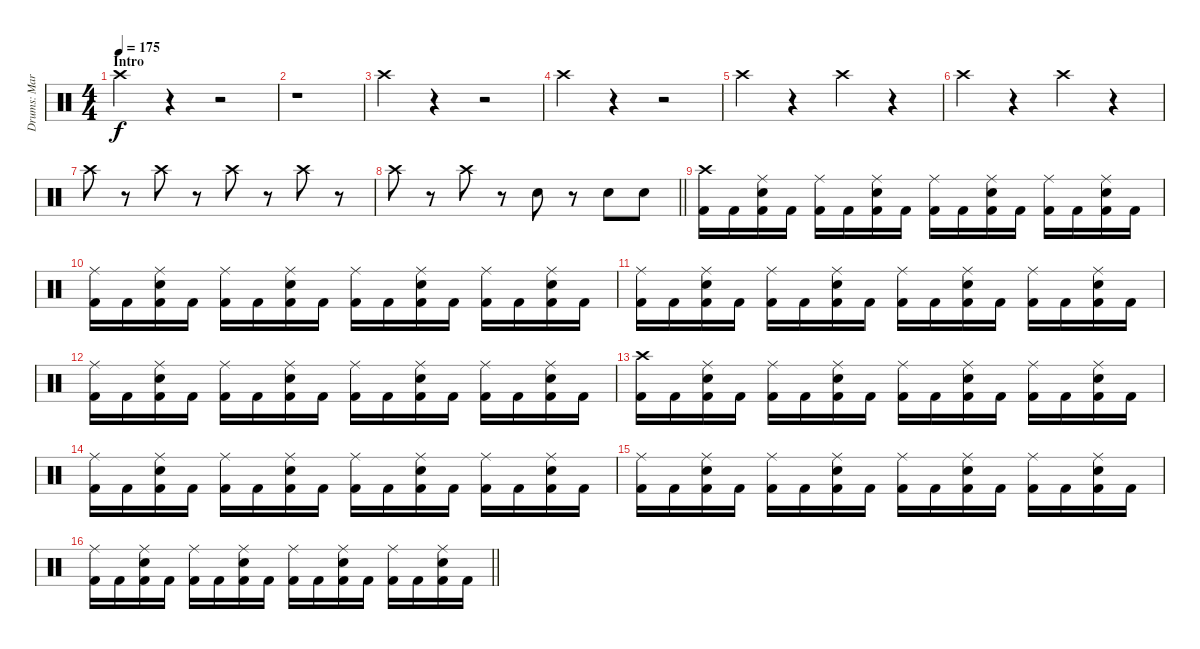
\track ("Drums: Martin Herzinger" "Drums: Mar") {instrument percussion}
\staff {score}
\articulation defaults
\ts (4 4)
\section ("" "Intro")
\tempo 175
\clef neutral
\ks aminor "Crash high (hit)".4{dy f}
r.4 r.2 |
r.1 |
"Crash high (hit)".4 r.4 r.2 |
"Crash high (hit)".4 r.4 r.2 |
"Crash high (hit)".4 r.4 "Crash high (hit)".4 r.4 |
"Crash high (hit)".4 r.4 "Crash high (hit)".4 r.4 |
"Crash high (hit)".8 r.8 "Crash high (hit)".8 r.8 "Crash high (hit)".8 r.8 "Crash high (hit)".8 r.8 |
\barLineRight lightlight "Crash high (hit)".8
r.8 "Crash high (hit)".8 r.8 "Snare (hit) 2".8 r.8 "Snare (hit) 2".8 "Snare (hit) 2".8 |
("Crash high (hit)" "Kick (hit) 2").16 "Kick (hit) 2".16 ("Ride (middle)" "Snare (hit) 2" "Kick (hit) 2").16 "Kick (hit) 2".16 ("Ride (middle)" "Kick (hit) 2").16 "Kick (hit) 2".16 ("Ride (middle)" "Snare (hit) 2" "Kick (hit) 2").16 "Kick (hit) 2".16 ("Ride (middle)" "Kick (hit) 2").16 "Kick (hit) 2".16 ("Ride (middle)" "Snare (hit) 2" "Kick (hit) 2").16 "Kick (hit) 2".16 ("Ride (middle)" "Kick (hit) 2").16 "Kick (hit) 2".16 ("Ride (middle)" "Snare (hit) 2" "Kick (hit) 2").16 "Kick (hit) 2".16 |
("Ride (middle)" "Kick (hit) 2").16 "Kick (hit) 2".16 ("Ride (middle)" "Snare (hit) 2" "Kick (hit) 2").16 "Kick (hit) 2".16 ("Ride (middle)" "Kick (hit) 2").16 "Kick (hit) 2".16 ("Ride (middle)" "Snare (hit) 2" "Kick (hit) 2").16 "Kick (hit) 2".16 ("Ride (middle)" "Kick (hit) 2").16 "Kick (hit) 2".16 ("Ride (middle)" "Snare (hit) 2" "Kick (hit) 2").16 "Kick (hit) 2".16 ("Ride (middle)" "Kick (hit) 2").16 "Kick (hit) 2".16 ("Ride (middle)" "Snare (hit) 2" "Kick (hit) 2").16 "Kick (hit) 2".16 |
("Ride (middle)" "Kick (hit) 2").16 "Kick (hit) 2".16 ("Ride (middle)" "Snare (hit) 2" "Kick (hit) 2").16 "Kick (hit) 2".16 ("Ride (middle)" "Kick (hit) 2").16 "Kick (hit) 2".16 ("Ride (middle)" "Snare (hit) 2" "Kick (hit) 2").16 "Kick (hit) 2".16 ("Ride (middle)" "Kick (hit) 2").16 "Kick (hit) 2".16 ("Ride (middle)" "Snare (hit) 2" "Kick (hit) 2").16 "Kick (hit) 2".16 ("Ride (middle)" "Kick (hit) 2").16 "Kick (hit) 2".16 ("Ride (middle)" "Snare (hit) 2" "Kick (hit) 2").16 "Kick (hit) 2".16 |
("Ride (middle)" "Kick (hit) 2").16 "Kick (hit) 2".16 ("Ride (middle)" "Snare (hit) 2" "Kick (hit) 2").16 "Kick (hit) 2".16 ("Ride (middle)" "Kick (hit) 2").16 "Kick (hit) 2".16 ("Ride (middle)" "Snare (hit) 2" "Kick (hit) 2").16 "Kick (hit) 2".16 ("Ride (middle)" "Kick (hit) 2").16 "Kick (hit) 2".16 ("Ride (middle)" "Snare (hit) 2" "Kick (hit) 2").16 "Kick (hit) 2".16 ("Ride (middle)" "Kick (hit) 2").16 "Kick (hit) 2".16 ("Ride (middle)" "Snare (hit) 2" "Kick (hit) 2").16 "Kick (hit) 2".16 |
("Crash high (hit)" "Kick (hit) 2").16 "Kick (hit) 2".16 ("Ride (middle)" "Snare (hit) 2" "Kick (hit) 2").16 "Kick (hit) 2".16 ("Ride (middle)" "Kick (hit) 2").16 "Kick (hit) 2".16 ("Ride (middle)" "Snare (hit) 2" "Kick (hit) 2").16 "Kick (hit) 2".16 ("Ride (middle)" "Kick (hit) 2").16 "Kick (hit) 2".16 ("Ride (middle)" "Snare (hit) 2" "Kick (hit) 2").16 "Kick (hit) 2".16 ("Ride (middle)" "Kick (hit) 2").16 "Kick (hit) 2".16 ("Ride (middle)" "Snare (hit) 2" "Kick (hit) 2").16 "Kick (hit) 2".16 |
("Ride (middle)" "Kick (hit) 2").16 "Kick (hit) 2".16 ("Ride (middle)" "Snare (hit) 2" "Kick (hit) 2").16 "Kick (hit) 2".16 ("Ride (middle)" "Kick (hit) 2").16 "Kick (hit) 2".16 ("Ride (middle)" "Snare (hit) 2" "Kick (hit) 2").16 "Kick (hit) 2".16 ("Ride (middle)" "Kick (hit) 2").16 "Kick (hit) 2".16 ("Ride (middle)" "Snare (hit) 2" "Kick (hit) 2").16 "Kick (hit) 2".16 ("Ride (middle)" "Kick (hit) 2").16 "Kick (hit) 2".16 ("Ride (middle)" "Snare (hit) 2" "Kick (hit) 2").16 "Kick (hit) 2".16 |
("Ride (middle)" "Kick (hit) 2").16 "Kick (hit) 2".16 ("Ride (middle)" "Snare (hit) 2" "Kick (hit) 2").16 "Kick (hit) 2".16 ("Ride (middle)" "Kick (hit) 2").16 "Kick (hit) 2".16 ("Ride (middle)" "Snare (hit) 2" "Kick (hit) 2").16 "Kick (hit) 2".16 ("Ride (middle)" "Kick (hit) 2").16 "Kick (hit) 2".16 ("Ride (middle)" "Snare (hit) 2" "Kick (hit) 2").16 "Kick (hit) 2".16 ("Ride (middle)" "Kick (hit) 2").16 "Kick (hit) 2".16 ("Ride (middle)" "Snare (hit) 2" "Kick (hit) 2").16 "Kick (hit) 2".16 |
\barLineRight lightlight
("Ride (middle)" "Kick (hit) 2").16 "Kick (hit) 2".16 ("Ride (middle)" "Snare (hit) 2" "Kick (hit) 2").16 "Kick (hit) 2".16 ("Ride (middle)" "Kick (hit) 2").16 "Kick (hit) 2".16 ("Ride (middle)" "Snare (hit) 2" "Kick (hit) 2").16 "Kick (hit) 2".16 ("Ride (middle)" "Kick (hit) 2").16 "Kick (hit) 2".16 ("Ride (middle)" "Snare (hit) 2" "Kick (hit) 2").16 "Kick (hit) 2".16 ("Ride (middle)" "Kick (hit) 2").16 "Kick (hit) 2".16 ("Ride (middle)" "Snare (hit) 2" "Kick (hit) 2").16 "Kick (hit) 2".16
